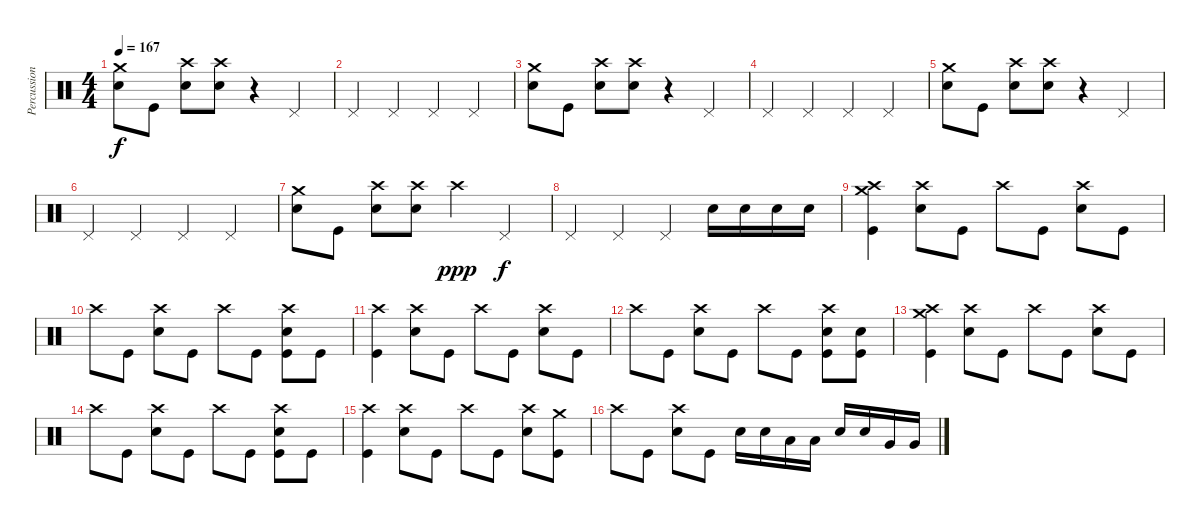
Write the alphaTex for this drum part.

\track ("Percussion" "Percussion") {instrument percussion}
\staff {score}
\articulation defaults
\ts (4 4)
\tempo 167
\clef neutral
\ks c
("Crash medium (hit)" "Electric Snare (hit)").8{dy f} "Kick (hit)".8 ("Crash high (hit)" "Electric Snare (hit)").8 ("Crash high (hit)" "Electric Snare (hit)").8 r.4 "Pedal Hi-Hat (hit)".4 |
"Pedal Hi-Hat (hit)".4 "Pedal Hi-Hat (hit)".4 "Pedal Hi-Hat (hit)".4 "Pedal Hi-Hat (hit)".4 |
("Crash medium (hit)" "Electric Snare (hit)").8 "Kick (hit)".8 ("Crash high (hit)" "Electric Snare (hit)").8 ("Crash high (hit)" "Electric Snare (hit)").8 r.4 "Pedal Hi-Hat (hit)".4 |
"Pedal Hi-Hat (hit)".4 "Pedal Hi-Hat (hit)".4 "Pedal Hi-Hat (hit)".4 "Pedal Hi-Hat (hit)".4 |
("Crash medium (hit)" "Electric Snare (hit)").8 "Kick (hit)".8 ("Crash high (hit)" "Electric Snare (hit)").8 ("Crash high (hit)" "Electric Snare (hit)").8 r.4 "Pedal Hi-Hat (hit)".4 |
"Pedal Hi-Hat (hit)".4 "Pedal Hi-Hat (hit)".4 "Pedal Hi-Hat (hit)".4 "Pedal Hi-Hat (hit)".4 |
("Crash medium (hit)" "Electric Snare (hit)").8 "Kick (hit)".8 ("Crash high (hit)" "Electric Snare (hit)").8 ("Crash high (hit)" "Electric Snare (hit)").8 "Crash high (hit)".4{dy ppp} "Pedal Hi-Hat (hit)".4{dy f} |
"Pedal Hi-Hat (hit)".4 "Pedal Hi-Hat (hit)".4 "Pedal Hi-Hat (hit)".4 "Electric Snare (hit)".16 "Electric Snare (hit)".16 "Electric Snare (hit)".16 "Electric Snare (hit)".16 |
("Crash medium (hit)" "Crash high (hit)" "Kick (hit)").4 ("Crash high (hit)" "Electric Snare (hit)").8 "Kick (hit)".8 "Crash high (hit)".8 "Kick (hit)".8 ("Crash high (hit)" "Electric Snare (hit)").8 "Kick (hit)".8 |
"Crash high (hit)".8 "Kick (hit)".8 ("Crash high (hit)" "Electric Snare (hit)").8 "Kick (hit)".8 "Crash high (hit)".8 "Kick (hit)".8 ("Crash high (hit)" "Electric Snare (hit)" "Kick (hit)").8 "Kick (hit)".8 |
("Crash high (hit)" "Kick (hit)").4 ("Crash high (hit)" "Electric Snare (hit)").8 "Kick (hit)".8 "Crash high (hit)".8 "Kick (hit)".8 ("Crash high (hit)" "Electric Snare (hit)").8 "Kick (hit)".8 |
"Crash high (hit)".8 "Kick (hit)".8 ("Crash high (hit)" "Electric Snare (hit)").8 "Kick (hit)".8 "Crash high (hit)".8 "Kick (hit)".8 ("Crash high (hit)" "Electric Snare (hit)" "Kick (hit)").8 ("Electric Snare (hit)" "Kick (hit)").8 |
("Crash medium (hit)" "Crash high (hit)" "Kick (hit)").4 ("Crash high (hit)" "Electric Snare (hit)").8 "Kick (hit)".8 "Crash high (hit)".8 "Kick (hit)".8 ("Crash high (hit)" "Electric Snare (hit)").8 "Kick (hit)".8 |
"Crash high (hit)".8 "Kick (hit)".8 ("Crash high (hit)" "Electric Snare (hit)").8 "Kick (hit)".8 "Crash high (hit)".8 "Kick (hit)".8 ("Crash high (hit)" "Electric Snare (hit)" "Kick (hit)").8 "Kick (hit)".8 |
("Crash high (hit)" "Kick (hit)").4 ("Crash high (hit)" "Electric Snare (hit)").8 "Kick (hit)".8 "Crash high (hit)".8 "Kick (hit)".8 ("Crash high (hit)" "Electric Snare (hit)").8 ("Crash medium (hit)" "Kick (hit)").8 |
"Crash high (hit)".8 "Kick (hit)".8 ("Crash high (hit)" "Electric Snare (hit)").8 "Kick (hit)".8 "Electric Snare (hit)".16 "Electric Snare (hit)".16 "Low Tom (hit)".16 "Low Tom (hit)".16 "Electric Snare (hit)".16 "Electric Snare (hit)".16 "Very Low Tom (hit)".16 "Very Low Tom (hit)".16
